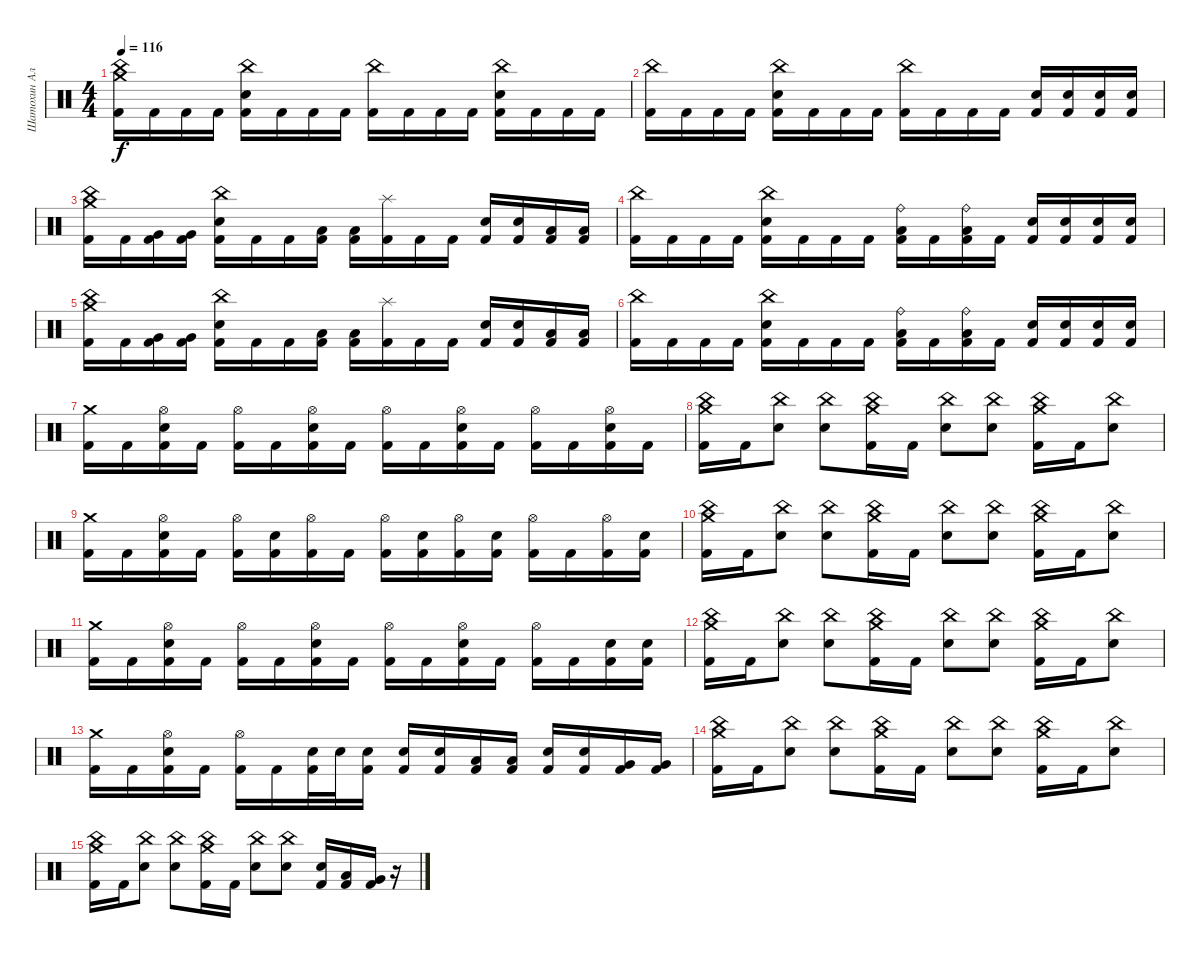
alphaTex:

\track ("Шатохин Алексей" "Шатохин Ал") {instrument percussion}
\staff {score}
\articulation defaults
\ts (4 4)
\tempo 116
\clef neutral
\ks c
("Crash medium (hit)" "China (hit)" "Kick (hit) 2").16{dy f} "Kick (hit) 2".16 "Kick (hit) 2".16 "Kick (hit) 2".16 ("China (hit)" "Electric Snare (hit)" "Kick (hit) 2").16 "Kick (hit) 2".16 "Kick (hit) 2".16 "Kick (hit) 2".16 ("China (hit)" "Kick (hit) 2").16 "Kick (hit) 2".16 "Kick (hit) 2".16 "Kick (hit) 2".16 ("China (hit)" "Electric Snare (hit)" "Kick (hit) 2").16 "Kick (hit) 2".16 "Kick (hit) 2".16 "Kick (hit) 2".16 |
("China (hit)" "Kick (hit) 2").16 "Kick (hit) 2".16 "Kick (hit) 2".16 "Kick (hit) 2".16 ("China (hit)" "Electric Snare (hit)" "Kick (hit) 2").16 "Kick (hit) 2".16 "Kick (hit) 2".16 "Kick (hit) 2".16 ("China (hit)" "Kick (hit) 2").16 "Kick (hit) 2".16 "Kick (hit) 2".16 "Kick (hit) 2".16 ("Electric Snare (hit)" "Kick (hit) 2").16 ("Electric Snare (hit)" "Kick (hit) 2").16 ("Electric Snare (hit)" "Kick (hit) 2").16 ("Electric Snare (hit)" "Kick (hit) 2").16 |
("Crash medium (hit)" "China (hit)" "Kick (hit) 2").16 "Kick (hit) 2".16 ("Very Low Tom (hit)" "Kick (hit) 2").16 ("Very Low Tom (hit)" "Kick (hit) 2").16 ("China (hit)" "Electric Snare (hit)" "Kick (hit) 2").16 "Kick (hit) 2".16 "Kick (hit) 2".16 ("Low Tom (hit)" "Kick (hit) 2").16 ("Low Tom (hit)" "Kick (hit) 2").16 ("Splash (hit)" "Kick (hit) 2").16 "Kick (hit) 2".16 "Kick (hit) 2".16 ("Electric Snare (hit)" "Kick (hit) 2").16 ("Electric Snare (hit)" "Kick (hit) 2").16 ("Low Floor Tom (hit)" "Kick (hit) 2").16 ("Low Floor Tom (hit)" "Kick (hit) 2").16 |
("China (hit)" "Kick (hit) 2").16 "Kick (hit) 2".16 "Kick (hit) 2".16 "Kick (hit) 2".16 ("China (hit)" "Electric Snare (hit)" "Kick (hit) 2").16 "Kick (hit) 2".16 "Kick (hit) 2".16 "Kick (hit) 2".16 ("Ride (bell)" "Low Tom (hit)" "Kick (hit) 2").16 "Kick (hit) 2".16 ("Ride (bell)" "Low Tom (hit)" "Kick (hit) 2").16 "Kick (hit) 2".16 ("Electric Snare (hit)" "Kick (hit) 2").16 ("Electric Snare (hit)" "Kick (hit) 2").16 ("Electric Snare (hit)" "Kick (hit) 2").16 ("Electric Snare (hit)" "Kick (hit) 2").16 |
("Crash medium (hit)" "China (hit)" "Kick (hit) 2").16 "Kick (hit) 2".16 ("Very Low Tom (hit)" "Kick (hit) 2").16 ("Very Low Tom (hit)" "Kick (hit) 2").16 ("China (hit)" "Electric Snare (hit)" "Kick (hit) 2").16 "Kick (hit) 2".16 "Kick (hit) 2".16 ("Low Tom (hit)" "Kick (hit) 2").16 ("Low Tom (hit)" "Kick (hit) 2").16 ("Splash (hit)" "Kick (hit) 2").16 "Kick (hit) 2".16 "Kick (hit) 2".16 ("Electric Snare (hit)" "Kick (hit) 2").16 ("Electric Snare (hit)" "Kick (hit) 2").16 ("Low Floor Tom (hit)" "Kick (hit) 2").16 ("Low Floor Tom (hit)" "Kick (hit) 2").16 |
("China (hit)" "Kick (hit) 2").16 "Kick (hit) 2".16 "Kick (hit) 2".16 "Kick (hit) 2".16 ("China (hit)" "Electric Snare (hit)" "Kick (hit) 2").16 "Kick (hit) 2".16 "Kick (hit) 2".16 "Kick (hit) 2".16 ("Ride (bell)" "Low Tom (hit)" "Kick (hit) 2").16 "Kick (hit) 2".16 ("Ride (bell)" "Low Tom (hit)" "Kick (hit) 2").16 "Kick (hit) 2".16 ("Electric Snare (hit)" "Kick (hit) 2").16 ("Electric Snare (hit)" "Kick (hit) 2").16 ("Electric Snare (hit)" "Kick (hit) 2").16 ("Electric Snare (hit)" "Kick (hit) 2").16 |
("Crash medium (hit)" "Kick (hit) 2").16 "Kick (hit) 2".16 ("Hi-Hat (open)" "Electric Snare (hit)" "Kick (hit) 2").16 "Kick (hit) 2".16 ("Hi-Hat (open)" "Kick (hit) 2").16 "Kick (hit) 2".16 ("Hi-Hat (open)" "Electric Snare (hit)" "Kick (hit) 2").16 "Kick (hit) 2".16 ("Hi-Hat (open)" "Kick (hit) 2").16 "Kick (hit) 2".16 ("Hi-Hat (open)" "Electric Snare (hit)" "Kick (hit) 2").16 "Kick (hit) 2".16 ("Hi-Hat (open)" "Kick (hit) 2").16 "Kick (hit) 2".16 ("Hi-Hat (open)" "Electric Snare (hit)" "Kick (hit) 2").16 "Kick (hit) 2".16 |
("China (hit)" "Crash medium (hit)" "Kick (hit) 2").16 "Kick (hit) 2".16 ("China (hit)" "Electric Snare (hit)").8 ("China (hit)" "Electric Snare (hit)").8 ("China (hit)" "Crash medium (hit)" "Kick (hit) 2").16 "Kick (hit) 2".16 ("China (hit)" "Electric Snare (hit)").8 ("China (hit)" "Electric Snare (hit)").8 ("China (hit)" "Crash medium (hit)" "Kick (hit) 2").16 "Kick (hit) 2".16 ("China (hit)" "Electric Snare (hit)").8 |
("Crash medium (hit)" "Kick (hit) 2").16 "Kick (hit) 2".16 ("Hi-Hat (open)" "Electric Snare (hit)" "Kick (hit) 2").16 "Kick (hit) 2".16 ("Hi-Hat (open)" "Kick (hit) 2").16 ("Electric Snare (hit)" "Kick (hit) 2").16 ("Hi-Hat (open)" "Kick (hit) 2").16 "Kick (hit) 2".16 ("Hi-Hat (open)" "Kick (hit) 2").16 ("Electric Snare (hit)" "Kick (hit) 2").16 ("Hi-Hat (open)" "Kick (hit) 2").16 ("Electric Snare (hit)" "Kick (hit) 2").16 ("Hi-Hat (open)" "Kick (hit) 2").16 "Kick (hit) 2".16 ("Hi-Hat (open)" "Kick (hit) 2").16 ("Electric Snare (hit)" "Kick (hit) 2").16 |
("China (hit)" "Crash medium (hit)" "Kick (hit) 2").16 "Kick (hit) 2".16 ("China (hit)" "Electric Snare (hit)").8 ("China (hit)" "Electric Snare (hit)").8 ("China (hit)" "Crash medium (hit)" "Kick (hit) 2").16 "Kick (hit) 2".16 ("China (hit)" "Electric Snare (hit)").8 ("China (hit)" "Electric Snare (hit)").8 ("China (hit)" "Crash medium (hit)" "Kick (hit) 2").16 "Kick (hit) 2".16 ("China (hit)" "Electric Snare (hit)").8 |
("Crash medium (hit)" "Kick (hit) 2").16 "Kick (hit) 2".16 ("Hi-Hat (open)" "Electric Snare (hit)" "Kick (hit) 2").16 "Kick (hit) 2".16 ("Hi-Hat (open)" "Kick (hit) 2").16 "Kick (hit) 2".16 ("Hi-Hat (open)" "Electric Snare (hit)" "Kick (hit) 2").16 "Kick (hit) 2".16 ("Hi-Hat (open)" "Kick (hit) 2").16 "Kick (hit) 2".16 ("Hi-Hat (open)" "Electric Snare (hit)" "Kick (hit) 2").16 "Kick (hit) 2".16 ("Hi-Hat (open)" "Kick (hit) 2").16 "Kick (hit) 2".16 ("Electric Snare (hit)" "Kick (hit) 2").16 ("Electric Snare (hit)" "Kick (hit) 2").16 |
("China (hit)" "Crash medium (hit)" "Kick (hit) 2").16 "Kick (hit) 2".16 ("China (hit)" "Electric Snare (hit)").8 ("China (hit)" "Electric Snare (hit)").8 ("China (hit)" "Crash medium (hit)" "Kick (hit) 2").16 "Kick (hit) 2".16 ("China (hit)" "Electric Snare (hit)").8 ("China (hit)" "Electric Snare (hit)").8 ("China (hit)" "Crash medium (hit)" "Kick (hit) 2").16 "Kick (hit) 2".16 ("China (hit)" "Electric Snare (hit)").8 |
("Crash medium (hit)" "Kick (hit) 2").16 "Kick (hit) 2".16 ("Hi-Hat (open)" "Electric Snare (hit)" "Kick (hit) 2").16 "Kick (hit) 2".16 ("Hi-Hat (open)" "Kick (hit) 2").16 "Kick (hit) 2".16 ("Electric Snare (hit)" "Kick (hit) 2").32 "Electric Snare (hit)".32 ("Electric Snare (hit)" "Kick (hit) 2").16 ("Electric Snare (hit)" "Kick (hit) 2").16 ("Electric Snare (hit)" "Kick (hit) 2").16 ("Low Tom (hit)" "Kick (hit) 2").16 ("Low Tom (hit)" "Kick (hit) 2").16 ("Electric Snare (hit)" "Kick (hit) 2").16 ("Electric Snare (hit)" "Kick (hit) 2").16 ("Very Low Tom (hit)" "Kick (hit) 2").16 ("Very Low Tom (hit)" "Kick (hit) 2").16 |
("China (hit)" "Crash medium (hit)" "Kick (hit) 2").16 "Kick (hit) 2".16 ("China (hit)" "Electric Snare (hit)").8 ("China (hit)" "Electric Snare (hit)").8 ("China (hit)" "Crash medium (hit)" "Kick (hit) 2").16 "Kick (hit) 2".16 ("China (hit)" "Electric Snare (hit)").8 ("China (hit)" "Electric Snare (hit)").8 ("China (hit)" "Crash medium (hit)" "Kick (hit) 2").16 "Kick (hit) 2".16 ("China (hit)" "Electric Snare (hit)").8 |
("China (hit)" "Crash medium (hit)" "Kick (hit) 2").16 "Kick (hit) 2".16 ("China (hit)" "Electric Snare (hit)").8 ("China (hit)" "Electric Snare (hit)").8 ("China (hit)" "Crash medium (hit)" "Kick (hit) 2").16 "Kick (hit) 2".16 ("China (hit)" "Electric Snare (hit)").8 ("China (hit)" "Electric Snare (hit)").8 ("Electric Snare (hit)" "Kick (hit) 2").16 ("Low Tom (hit)" "Kick (hit) 2").16 ("Very Low Tom (hit)" "Kick (hit) 2").16 r.16
